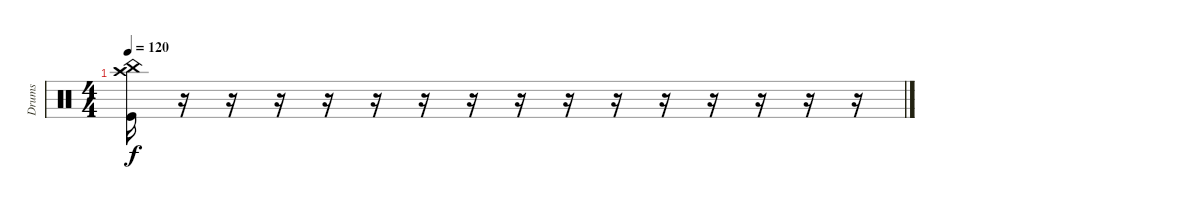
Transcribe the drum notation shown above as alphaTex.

\track ("Drums" "Drums") {instrument percussion}
\staff {score}
\articulation defaults
\ts (4 4)
\tempo 120
\clef neutral
\ks c
("Crash high (hit)" "China (hit)" "Kick (hit)").16{dy f} r.16 r.16 r.16 r.16 r.16 r.16 r.16 r.16 r.16 r.16 r.16 r.16 r.16 r.16 r.16
